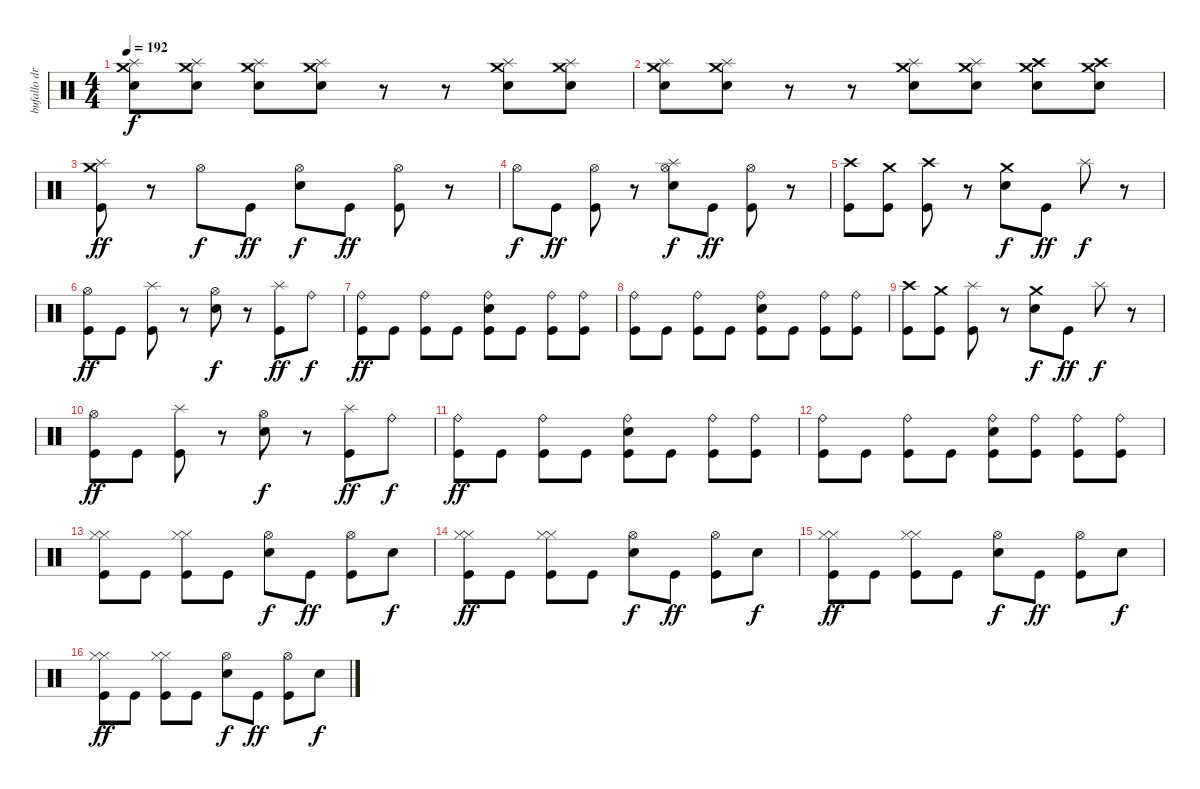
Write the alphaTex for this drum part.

\track ("bufallo drums" "bufallo dr") {instrument percussion}
\staff {score}
\articulation defaults
\ts (4 4)
\tempo 192
\clef neutral
\ks c
("Crash medium (hit)" "Splash (hit)" "Electric Snare (hit)").8{dy f} ("Crash medium (hit)" "Splash (hit)" "Electric Snare (hit)").8 ("Crash medium (hit)" "Splash (hit)" "Electric Snare (hit)").8 ("Crash medium (hit)" "Splash (hit)" "Electric Snare (hit)").8 r.8 r.8 ("Crash medium (hit)" "Splash (hit)" "Electric Snare (hit)").8 ("Crash medium (hit)" "Splash (hit)" "Electric Snare (hit)").8 |
("Crash medium (hit)" "Splash (hit)" "Electric Snare (hit)").8 ("Crash medium (hit)" "Splash (hit)" "Electric Snare (hit)").8 r.8 r.8 ("Crash medium (hit)" "Splash (hit)" "Electric Snare (hit)").8 ("Crash medium (hit)" "Splash (hit)" "Electric Snare (hit)").8 ("Crash high (hit)" "Crash medium (hit)" "Electric Snare (hit)").8 ("Crash high (hit)" "Crash medium (hit)" "Electric Snare (hit)").8 |
("Crash medium (hit)" "Splash (hit)" "Kick (hit)").8{dy ff} r.8 "Hi-Hat (open)".8{dy f} "Kick (hit)".8{dy ff} ("Hi-Hat (open)" "Electric Snare (hit)").8{dy f} "Kick (hit)".8{dy ff} ("Hi-Hat (open)" "Kick (hit)").8 r.8 |
"Hi-Hat (open)".8{dy f} "Kick (hit)".8{dy ff} ("Hi-Hat (open)" "Kick (hit)").8 r.8 ("Hi-Hat (open)" "Splash (hit)" "Electric Snare (hit)").8{dy f} "Kick (hit)".8{dy ff} ("Hi-Hat (open)" "Kick (hit)").8 r.8 |
("Crash high (hit)" "Kick (hit)").8 ("Crash medium (hit)" "Kick (hit)").8 ("Crash high (hit)" "Kick (hit)").8 r.8 ("Crash medium (hit)" "Electric Snare (hit)").8{dy f} "Kick (hit)".8{dy ff} "Splash (hit)".8{dy f} r.8 |
("Hi-Hat (open)" "Kick (hit)").8{dy ff} "Kick (hit)".8 ("Splash (hit)" "Kick (hit)").8 r.8 ("Hi-Hat (open)" "Electric Snare (hit)").8{dy f} r.8 ("Splash (hit)" "Kick (hit)").8{dy ff} "Ride (bell)".8{dy f} |
("Ride (bell)" "Kick (hit)").8{dy ff} "Kick (hit)".8 ("Ride (bell)" "Kick (hit)").8 "Kick (hit)".8 ("Ride (bell)" "Electric Snare (hit)" "Kick (hit)").8 "Kick (hit)".8 ("Ride (bell)" "Kick (hit)").8 ("Ride (bell)" "Kick (hit)").8 |
("Ride (bell)" "Kick (hit)").8 "Kick (hit)".8 ("Ride (bell)" "Kick (hit)").8 "Kick (hit)".8 ("Ride (bell)" "Electric Snare (hit)" "Kick (hit)").8 "Kick (hit)".8 ("Ride (bell)" "Kick (hit)").8 ("Ride (bell)" "Kick (hit)").8 |
("Crash high (hit)" "Kick (hit)").8 ("Crash medium (hit)" "Kick (hit)").8 ("Splash (hit)" "Kick (hit)").8 r.8 ("Crash medium (hit)" "Electric Snare (hit)").8{dy f} "Kick (hit)".8{dy ff} "Splash (hit)".8{dy f} r.8 |
("Hi-Hat (open)" "Kick (hit)").8{dy ff} "Kick (hit)".8 ("Splash (hit)" "Kick (hit)").8 r.8 ("Hi-Hat (open)" "Electric Snare (hit)").8{dy f} r.8 ("Splash (hit)" "Kick (hit)").8{dy ff} "Ride (bell)".8{dy f} |
("Ride (bell)" "Kick (hit)").8{dy ff} "Kick (hit)".8 ("Ride (bell)" "Kick (hit)").8 "Kick (hit)".8 ("Ride (bell)" "Electric Snare (hit)" "Kick (hit)").8 "Kick (hit)".8 ("Ride (bell)" "Kick (hit)").8 ("Ride (bell)" "Kick (hit)").8 |
("Ride (bell)" "Kick (hit)").8 "Kick (hit)".8 ("Ride (bell)" "Kick (hit)").8 "Kick (hit)".8 ("Ride (bell)" "Electric Snare (hit)" "Kick (hit)").8 ("Ride (bell)" "Kick (hit)").8 ("Ride (bell)" "Kick (hit)").8 ("Ride (bell)" "Kick (hit)").8 |
("Hi-Hat (closed)" "Hi-Hat (closed)" "Kick (hit)").8 "Kick (hit)".8 ("Hi-Hat (closed)" "Hi-Hat (closed)" "Kick (hit)").8 "Kick (hit)".8 ("Hi-Hat (open)" "Electric Snare (hit)").8{dy f} "Kick (hit)".8{dy ff} ("Hi-Hat (open)" "Kick (hit)").8 "Electric Snare (hit)".8{dy f} |
("Hi-Hat (closed)" "Hi-Hat (closed)" "Kick (hit)").8{dy ff} "Kick (hit)".8 ("Hi-Hat (closed)" "Hi-Hat (closed)" "Kick (hit)").8 "Kick (hit)".8 ("Hi-Hat (open)" "Electric Snare (hit)").8{dy f} "Kick (hit)".8{dy ff} ("Hi-Hat (open)" "Kick (hit)").8 "Electric Snare (hit)".8{dy f} |
("Hi-Hat (closed)" "Hi-Hat (closed)" "Kick (hit)").8{dy ff} "Kick (hit)".8 ("Hi-Hat (closed)" "Hi-Hat (closed)" "Kick (hit)").8 "Kick (hit)".8 ("Hi-Hat (open)" "Electric Snare (hit)").8{dy f} "Kick (hit)".8{dy ff} ("Hi-Hat (open)" "Kick (hit)").8 "Electric Snare (hit)".8{dy f} |
("Hi-Hat (closed)" "Hi-Hat (closed)" "Kick (hit)").8{dy ff} "Kick (hit)".8 ("Hi-Hat (closed)" "Hi-Hat (closed)" "Kick (hit)").8 "Kick (hit)".8 ("Hi-Hat (open)" "Electric Snare (hit)").8{dy f} "Kick (hit)".8{dy ff} ("Hi-Hat (open)" "Kick (hit)").8 "Electric Snare (hit)".8{dy f}
